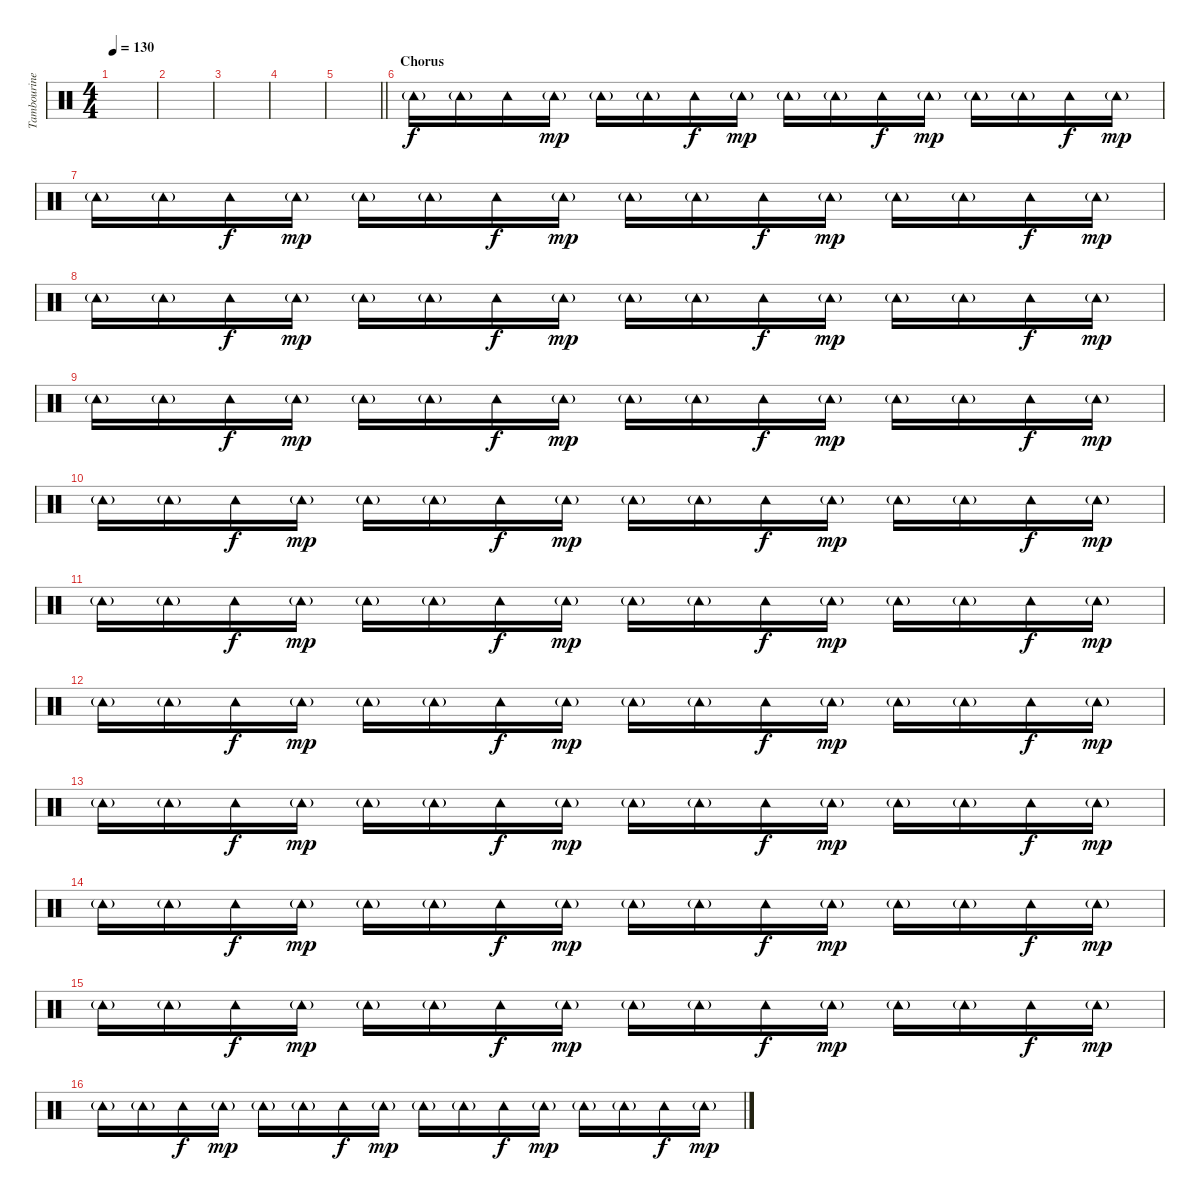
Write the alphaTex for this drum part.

\track ("Tambourine" "Tambourine") {instrument percussion}
\staff {score}
\articulation defaults
\ts (4 4)
\tempo 130
\clef neutral
\ks c
|
|
|
|
\barLineRight lightlight
|
\section ("" "Chorus")
"Tambourine (hit)"{g}.16 "Tambourine (hit)"{g}.16 "Tambourine (hit)".16{dy f} "Tambourine (hit)"{g}.16{dy mp} "Tambourine (hit)"{g}.16 "Tambourine (hit)"{g}.16 "Tambourine (hit)".16{dy f} "Tambourine (hit)"{g}.16{dy mp} "Tambourine (hit)"{g}.16 "Tambourine (hit)"{g}.16 "Tambourine (hit)".16{dy f} "Tambourine (hit)"{g}.16{dy mp} "Tambourine (hit)"{g}.16 "Tambourine (hit)"{g}.16 "Tambourine (hit)".16{dy f} "Tambourine (hit)"{g}.16{dy mp} |
"Tambourine (hit)"{g}.16 "Tambourine (hit)"{g}.16 "Tambourine (hit)".16{dy f} "Tambourine (hit)"{g}.16{dy mp} "Tambourine (hit)"{g}.16 "Tambourine (hit)"{g}.16 "Tambourine (hit)".16{dy f} "Tambourine (hit)"{g}.16{dy mp} "Tambourine (hit)"{g}.16 "Tambourine (hit)"{g}.16 "Tambourine (hit)".16{dy f} "Tambourine (hit)"{g}.16{dy mp} "Tambourine (hit)"{g}.16 "Tambourine (hit)"{g}.16 "Tambourine (hit)".16{dy f} "Tambourine (hit)"{g}.16{dy mp} |
"Tambourine (hit)"{g}.16 "Tambourine (hit)"{g}.16 "Tambourine (hit)".16{dy f} "Tambourine (hit)"{g}.16{dy mp} "Tambourine (hit)"{g}.16 "Tambourine (hit)"{g}.16 "Tambourine (hit)".16{dy f} "Tambourine (hit)"{g}.16{dy mp} "Tambourine (hit)"{g}.16 "Tambourine (hit)"{g}.16 "Tambourine (hit)".16{dy f} "Tambourine (hit)"{g}.16{dy mp} "Tambourine (hit)"{g}.16 "Tambourine (hit)"{g}.16 "Tambourine (hit)".16{dy f} "Tambourine (hit)"{g}.16{dy mp} |
"Tambourine (hit)"{g}.16 "Tambourine (hit)"{g}.16 "Tambourine (hit)".16{dy f} "Tambourine (hit)"{g}.16{dy mp} "Tambourine (hit)"{g}.16 "Tambourine (hit)"{g}.16 "Tambourine (hit)".16{dy f} "Tambourine (hit)"{g}.16{dy mp} "Tambourine (hit)"{g}.16 "Tambourine (hit)"{g}.16 "Tambourine (hit)".16{dy f} "Tambourine (hit)"{g}.16{dy mp} "Tambourine (hit)"{g}.16 "Tambourine (hit)"{g}.16 "Tambourine (hit)".16{dy f} "Tambourine (hit)"{g}.16{dy mp} |
"Tambourine (hit)"{g}.16 "Tambourine (hit)"{g}.16 "Tambourine (hit)".16{dy f} "Tambourine (hit)"{g}.16{dy mp} "Tambourine (hit)"{g}.16 "Tambourine (hit)"{g}.16 "Tambourine (hit)".16{dy f} "Tambourine (hit)"{g}.16{dy mp} "Tambourine (hit)"{g}.16 "Tambourine (hit)"{g}.16 "Tambourine (hit)".16{dy f} "Tambourine (hit)"{g}.16{dy mp} "Tambourine (hit)"{g}.16 "Tambourine (hit)"{g}.16 "Tambourine (hit)".16{dy f} "Tambourine (hit)"{g}.16{dy mp} |
"Tambourine (hit)"{g}.16 "Tambourine (hit)"{g}.16 "Tambourine (hit)".16{dy f} "Tambourine (hit)"{g}.16{dy mp} "Tambourine (hit)"{g}.16 "Tambourine (hit)"{g}.16 "Tambourine (hit)".16{dy f} "Tambourine (hit)"{g}.16{dy mp} "Tambourine (hit)"{g}.16 "Tambourine (hit)"{g}.16 "Tambourine (hit)".16{dy f} "Tambourine (hit)"{g}.16{dy mp} "Tambourine (hit)"{g}.16 "Tambourine (hit)"{g}.16 "Tambourine (hit)".16{dy f} "Tambourine (hit)"{g}.16{dy mp} |
"Tambourine (hit)"{g}.16 "Tambourine (hit)"{g}.16 "Tambourine (hit)".16{dy f} "Tambourine (hit)"{g}.16{dy mp} "Tambourine (hit)"{g}.16 "Tambourine (hit)"{g}.16 "Tambourine (hit)".16{dy f} "Tambourine (hit)"{g}.16{dy mp} "Tambourine (hit)"{g}.16 "Tambourine (hit)"{g}.16 "Tambourine (hit)".16{dy f} "Tambourine (hit)"{g}.16{dy mp} "Tambourine (hit)"{g}.16 "Tambourine (hit)"{g}.16 "Tambourine (hit)".16{dy f} "Tambourine (hit)"{g}.16{dy mp} |
"Tambourine (hit)"{g}.16 "Tambourine (hit)"{g}.16 "Tambourine (hit)".16{dy f} "Tambourine (hit)"{g}.16{dy mp} "Tambourine (hit)"{g}.16 "Tambourine (hit)"{g}.16 "Tambourine (hit)".16{dy f} "Tambourine (hit)"{g}.16{dy mp} "Tambourine (hit)"{g}.16 "Tambourine (hit)"{g}.16 "Tambourine (hit)".16{dy f} "Tambourine (hit)"{g}.16{dy mp} "Tambourine (hit)"{g}.16 "Tambourine (hit)"{g}.16 "Tambourine (hit)".16{dy f} "Tambourine (hit)"{g}.16{dy mp} |
"Tambourine (hit)"{g}.16 "Tambourine (hit)"{g}.16 "Tambourine (hit)".16{dy f} "Tambourine (hit)"{g}.16{dy mp} "Tambourine (hit)"{g}.16 "Tambourine (hit)"{g}.16 "Tambourine (hit)".16{dy f} "Tambourine (hit)"{g}.16{dy mp} "Tambourine (hit)"{g}.16 "Tambourine (hit)"{g}.16 "Tambourine (hit)".16{dy f} "Tambourine (hit)"{g}.16{dy mp} "Tambourine (hit)"{g}.16 "Tambourine (hit)"{g}.16 "Tambourine (hit)".16{dy f} "Tambourine (hit)"{g}.16{dy mp} |
"Tambourine (hit)"{g}.16 "Tambourine (hit)"{g}.16 "Tambourine (hit)".16{dy f} "Tambourine (hit)"{g}.16{dy mp} "Tambourine (hit)"{g}.16 "Tambourine (hit)"{g}.16 "Tambourine (hit)".16{dy f} "Tambourine (hit)"{g}.16{dy mp} "Tambourine (hit)"{g}.16 "Tambourine (hit)"{g}.16 "Tambourine (hit)".16{dy f} "Tambourine (hit)"{g}.16{dy mp} "Tambourine (hit)"{g}.16 "Tambourine (hit)"{g}.16 "Tambourine (hit)".16{dy f} "Tambourine (hit)"{g}.16{dy mp} |
"Tambourine (hit)"{g}.16 "Tambourine (hit)"{g}.16 "Tambourine (hit)".16{dy f} "Tambourine (hit)"{g}.16{dy mp} "Tambourine (hit)"{g}.16 "Tambourine (hit)"{g}.16 "Tambourine (hit)".16{dy f} "Tambourine (hit)"{g}.16{dy mp} "Tambourine (hit)"{g}.16 "Tambourine (hit)"{g}.16 "Tambourine (hit)".16{dy f} "Tambourine (hit)"{g}.16{dy mp} "Tambourine (hit)"{g}.16 "Tambourine (hit)"{g}.16 "Tambourine (hit)".16{dy f} "Tambourine (hit)"{g}.16{dy mp}
